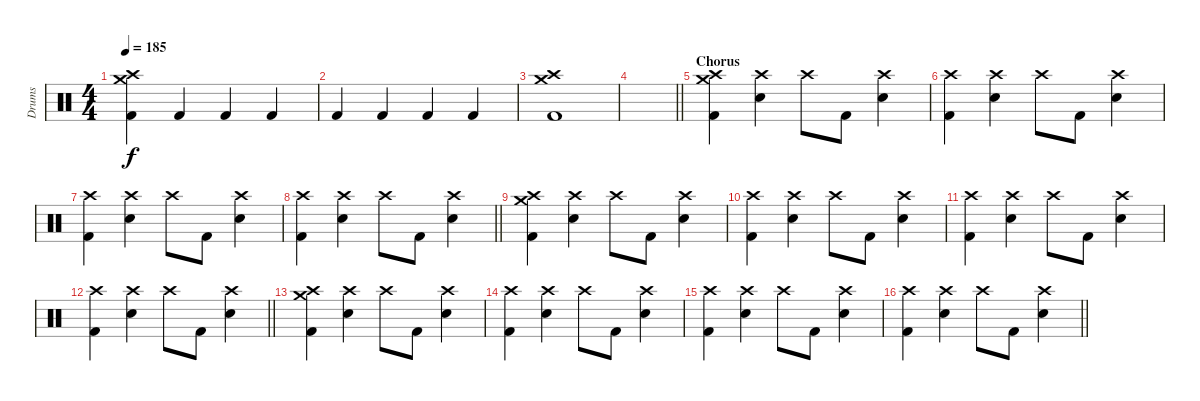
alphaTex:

\track ("Drums" "Drums") {instrument percussion}
\staff {score}
\articulation defaults
\ts (4 4)
\tempo 185
\clef neutral
\ks c
("Crash medium (hit)" "Crash high (hit)" "Kick (hit) 2").4{dy f} "Kick (hit) 2".4 "Kick (hit) 2".4 "Kick (hit) 2".4 |
"Kick (hit) 2".4 "Kick (hit) 2".4 "Kick (hit) 2".4 "Kick (hit) 2".4 |
("Crash medium (hit)" "Crash high (hit)" "Kick (hit) 2").1 |
\barLineRight lightlight
|
\section ("" "Chorus")
("Crash high (hit)" "Crash medium (hit)" "Kick (hit) 2").4 ("Crash high (hit)" "Electric Snare (hit)").4 "Crash high (hit)".8 "Kick (hit) 2".8 ("Crash high (hit)" "Electric Snare (hit)").4 |
("Crash high (hit)" "Kick (hit) 2").4 ("Crash high (hit)" "Electric Snare (hit)").4 "Crash high (hit)".8 "Kick (hit) 2".8 ("Crash high (hit)" "Electric Snare (hit)").4 |
("Crash high (hit)" "Kick (hit) 2").4 ("Crash high (hit)" "Electric Snare (hit)").4 "Crash high (hit)".8 "Kick (hit) 2".8 ("Crash high (hit)" "Electric Snare (hit)").4 |
\barLineRight lightlight
("Crash high (hit)" "Kick (hit) 2").4 ("Crash high (hit)" "Electric Snare (hit)").4 "Crash high (hit)".8 "Kick (hit) 2".8 ("Crash high (hit)" "Electric Snare (hit)").4 |
("Crash high (hit)" "Crash medium (hit)" "Kick (hit) 2").4 ("Crash high (hit)" "Electric Snare (hit)").4 "Crash high (hit)".8 "Kick (hit) 2".8 ("Crash high (hit)" "Electric Snare (hit)").4 |
("Crash high (hit)" "Kick (hit) 2").4 ("Crash high (hit)" "Electric Snare (hit)").4 "Crash high (hit)".8 "Kick (hit) 2".8 ("Crash high (hit)" "Electric Snare (hit)").4 |
("Crash high (hit)" "Kick (hit) 2").4 ("Crash high (hit)" "Electric Snare (hit)").4 "Crash high (hit)".8 "Kick (hit) 2".8 ("Crash high (hit)" "Electric Snare (hit)").4 |
\barLineRight lightlight
("Crash high (hit)" "Kick (hit) 2").4 ("Crash high (hit)" "Electric Snare (hit)").4 "Crash high (hit)".8 "Kick (hit) 2".8 ("Crash high (hit)" "Electric Snare (hit)").4 |
("Crash high (hit)" "Crash medium (hit)" "Kick (hit) 2").4 ("Crash high (hit)" "Electric Snare (hit)").4 "Crash high (hit)".8 "Kick (hit) 2".8 ("Crash high (hit)" "Electric Snare (hit)").4 |
("Crash high (hit)" "Kick (hit) 2").4 ("Crash high (hit)" "Electric Snare (hit)").4 "Crash high (hit)".8 "Kick (hit) 2".8 ("Crash high (hit)" "Electric Snare (hit)").4 |
("Crash high (hit)" "Kick (hit) 2").4 ("Crash high (hit)" "Electric Snare (hit)").4 "Crash high (hit)".8 "Kick (hit) 2".8 ("Crash high (hit)" "Electric Snare (hit)").4 |
\barLineRight lightlight
("Crash high (hit)" "Kick (hit) 2").4 ("Crash high (hit)" "Electric Snare (hit)").4 "Crash high (hit)".8 "Kick (hit) 2".8 ("Crash high (hit)" "Electric Snare (hit)").4
